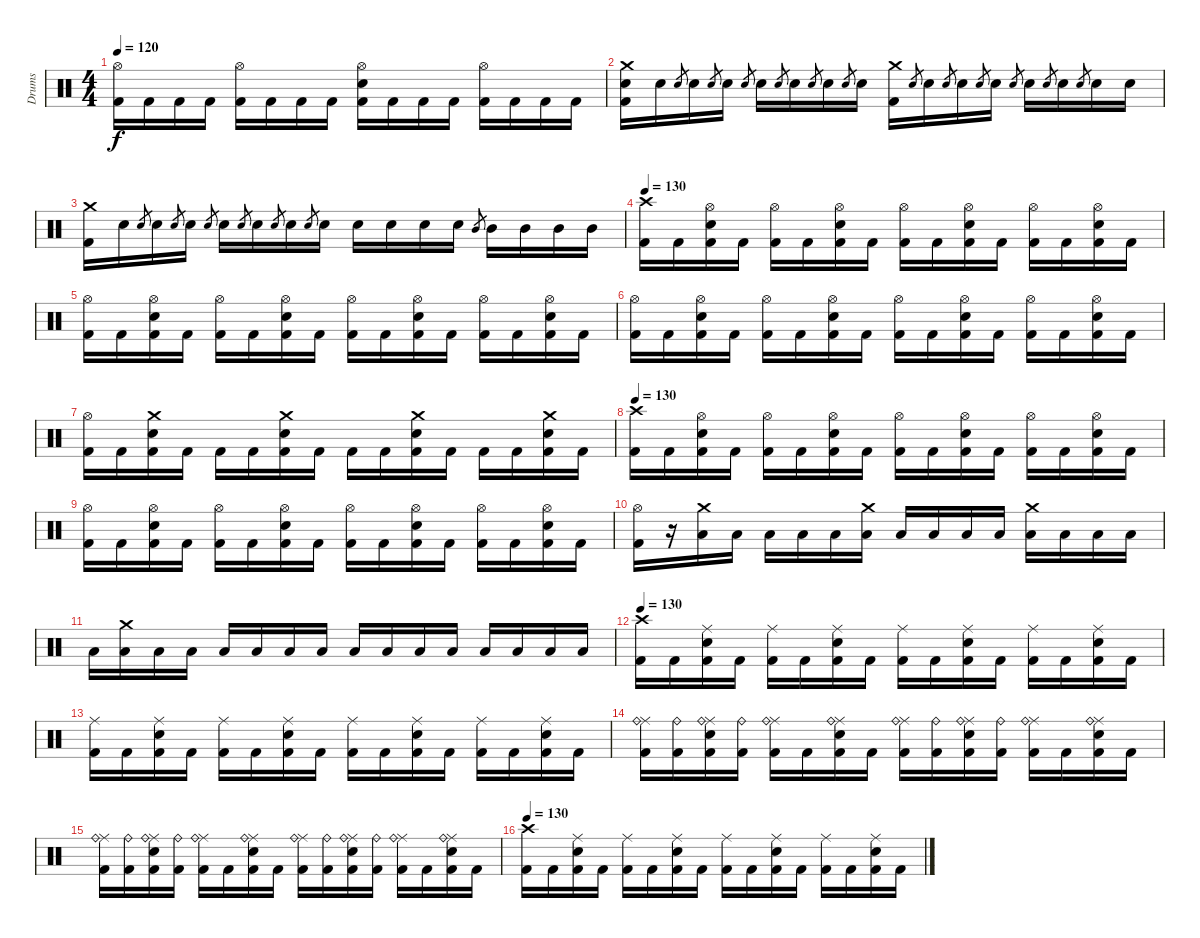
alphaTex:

\track ("Drums" "Drums") {instrument percussion}
\staff {score}
\articulation defaults
\ts (4 4)
\tempo 120
\clef neutral
\ks c
("Hi-Hat (open)" "Kick (hit) 2").16{dy f} "Kick (hit) 2".16 "Kick (hit) 2".16 "Kick (hit) 2".16 ("Hi-Hat (open)" "Kick (hit) 2").16 "Kick (hit) 2".16 "Kick (hit) 2".16 "Kick (hit) 2".16 ("Hi-Hat (open)" "Electric Snare (hit)" "Kick (hit) 2").16 "Kick (hit) 2".16 "Kick (hit) 2".16 "Kick (hit) 2".16 ("Hi-Hat (open)" "Kick (hit) 2").16 "Kick (hit) 2".16 "Kick (hit) 2".16 "Kick (hit) 2".16 |
("Crash medium (hit)" "Electric Snare (hit)" "Kick (hit) 2").16 "Electric Snare (hit)".16 "Electric Snare (hit)".8{gr} "Electric Snare (hit)".16 "Electric Snare (hit)".8{gr} "Electric Snare (hit)".16 "Electric Snare (hit)".8{gr} "Electric Snare (hit)".16 "Electric Snare (hit)".8{gr} "Electric Snare (hit)".16 "Electric Snare (hit)".8{gr} "Electric Snare (hit)".16 "Electric Snare (hit)".8{gr} "Electric Snare (hit)".16 ("Crash medium (hit)" "Kick (hit) 2").16 "Electric Snare (hit)".8{gr} "Electric Snare (hit)".16 "Electric Snare (hit)".8{gr} "Electric Snare (hit)".16 "Electric Snare (hit)".8{gr} "Electric Snare (hit)".16 "Electric Snare (hit)".8{gr} "Electric Snare (hit)".16 "Electric Snare (hit)".8{gr} "Electric Snare (hit)".16 "Electric Snare (hit)".8{gr} "Electric Snare (hit)".16 "Electric Snare (hit)".16 |
("Crash medium (hit)" "Kick (hit) 2").16 "Electric Snare (hit)".16 "Electric Snare (hit)".8{gr} "Electric Snare (hit)".16 "Electric Snare (hit)".8{gr} "Electric Snare (hit)".16 "Electric Snare (hit)".8{gr} "Electric Snare (hit)".16 "Electric Snare (hit)".8{gr} "Electric Snare (hit)".16 "Electric Snare (hit)".8{gr} "Electric Snare (hit)".16 "Electric Snare (hit)".8{gr} "Electric Snare (hit)".16 "Electric Snare (hit)".16 "Electric Snare (hit)".16 "Electric Snare (hit)".16 "Electric Snare (hit)".16 "Mid Tom (hit)".8{gr} "Mid Tom (hit)".16 "Mid Tom (hit)".16 "Mid Tom (hit)".16 "Mid Tom (hit)".16 |
\tempo 130
("Crash high (hit)" "Kick (hit) 2").16 "Kick (hit) 2".16 ("Hi-Hat (open)" "Electric Snare (hit)" "Kick (hit) 2").16 "Kick (hit) 2".16 ("Hi-Hat (open)" "Kick (hit) 2").16 "Kick (hit) 2".16 ("Hi-Hat (open)" "Electric Snare (hit)" "Kick (hit) 2").16 "Kick (hit) 2".16 ("Hi-Hat (open)" "Kick (hit) 2").16 "Kick (hit) 2".16 ("Hi-Hat (open)" "Electric Snare (hit)" "Kick (hit) 2").16 "Kick (hit) 2".16 ("Hi-Hat (open)" "Kick (hit) 2").16 "Kick (hit) 2".16 ("Hi-Hat (open)" "Electric Snare (hit)" "Kick (hit) 2").16 "Kick (hit) 2".16 |
("Hi-Hat (open)" "Kick (hit) 2").16 "Kick (hit) 2".16 ("Hi-Hat (open)" "Electric Snare (hit)" "Kick (hit) 2").16 "Kick (hit) 2".16 ("Hi-Hat (open)" "Kick (hit) 2").16 "Kick (hit) 2".16 ("Hi-Hat (open)" "Electric Snare (hit)" "Kick (hit) 2").16 "Kick (hit) 2".16 ("Hi-Hat (open)" "Kick (hit) 2").16 "Kick (hit) 2".16 ("Hi-Hat (open)" "Electric Snare (hit)" "Kick (hit) 2").16 "Kick (hit) 2".16 ("Hi-Hat (open)" "Kick (hit) 2").16 "Kick (hit) 2".16 ("Hi-Hat (open)" "Electric Snare (hit)" "Kick (hit) 2").16 "Kick (hit) 2".16 |
("Hi-Hat (open)" "Kick (hit) 2").16 "Kick (hit) 2".16 ("Hi-Hat (open)" "Electric Snare (hit)" "Kick (hit) 2").16 "Kick (hit) 2".16 ("Hi-Hat (open)" "Kick (hit) 2").16 "Kick (hit) 2".16 ("Hi-Hat (open)" "Electric Snare (hit)" "Kick (hit) 2").16 "Kick (hit) 2".16 ("Hi-Hat (open)" "Kick (hit) 2").16 "Kick (hit) 2".16 ("Hi-Hat (open)" "Electric Snare (hit)" "Kick (hit) 2").16 "Kick (hit) 2".16 ("Hi-Hat (open)" "Kick (hit) 2").16 "Kick (hit) 2".16 ("Hi-Hat (open)" "Electric Snare (hit)" "Kick (hit) 2").16 "Kick (hit) 2".16 |
("Hi-Hat (open)" "Kick (hit) 2").16 "Kick (hit) 2".16 ("Crash medium (hit)" "Electric Snare (hit)" "Kick (hit) 2").16 "Kick (hit) 2".16 "Kick (hit) 2".16 "Kick (hit) 2".16 ("Crash medium (hit)" "Electric Snare (hit)" "Kick (hit) 2").16 "Kick (hit) 2".16 "Kick (hit) 2".16 "Kick (hit) 2".16 ("Crash medium (hit)" "Electric Snare (hit)" "Kick (hit) 2").16 "Kick (hit) 2".16 "Kick (hit) 2".16 "Kick (hit) 2".16 ("Crash medium (hit)" "Electric Snare (hit)" "Kick (hit) 2").16 "Kick (hit) 2".16 |
\tempo 130
("Crash high (hit)" "Kick (hit) 2").16 "Kick (hit) 2".16 ("Hi-Hat (open)" "Electric Snare (hit)" "Kick (hit) 2").16 "Kick (hit) 2".16 ("Hi-Hat (open)" "Kick (hit) 2").16 "Kick (hit) 2".16 ("Hi-Hat (open)" "Electric Snare (hit)" "Kick (hit) 2").16 "Kick (hit) 2".16 ("Hi-Hat (open)" "Kick (hit) 2").16 "Kick (hit) 2".16 ("Hi-Hat (open)" "Electric Snare (hit)" "Kick (hit) 2").16 "Kick (hit) 2".16 ("Hi-Hat (open)" "Kick (hit) 2").16 "Kick (hit) 2".16 ("Hi-Hat (open)" "Electric Snare (hit)" "Kick (hit) 2").16 "Kick (hit) 2".16 |
("Hi-Hat (open)" "Kick (hit) 2").16 "Kick (hit) 2".16 ("Hi-Hat (open)" "Electric Snare (hit)" "Kick (hit) 2").16 "Kick (hit) 2".16 ("Hi-Hat (open)" "Kick (hit) 2").16 "Kick (hit) 2".16 ("Hi-Hat (open)" "Electric Snare (hit)" "Kick (hit) 2").16 "Kick (hit) 2".16 ("Hi-Hat (open)" "Kick (hit) 2").16 "Kick (hit) 2".16 ("Hi-Hat (open)" "Electric Snare (hit)" "Kick (hit) 2").16 "Kick (hit) 2".16 ("Hi-Hat (open)" "Kick (hit) 2").16 "Kick (hit) 2".16 ("Hi-Hat (open)" "Electric Snare (hit)" "Kick (hit) 2").16 "Kick (hit) 2".16 |
("Hi-Hat (open)" "Kick (hit) 2").16 r.16 ("Crash medium (hit)" "Low Tom (hit)").16 "Low Tom (hit)".16 "Low Tom (hit)".16 "Low Tom (hit)".16 "Low Tom (hit)".16 ("Crash medium (hit)" "Low Tom (hit)").16 "Low Tom (hit)".16 "Low Tom (hit)".16 "Low Tom (hit)".16 "Low Tom (hit)".16 ("Crash medium (hit)" "Low Tom (hit)").16 "Low Tom (hit)".16 "Low Tom (hit)".16 "Low Tom (hit)".16 |
"Low Tom (hit)".16 ("Crash medium (hit)" "Low Tom (hit)").16 "Low Tom (hit)".16 "Low Tom (hit)".16 "Low Tom (hit)".16 "Low Tom (hit)".16 "Low Tom (hit)".16 "Low Tom (hit)".16 "Low Tom (hit)".16 "Low Tom (hit)".16 "Low Tom (hit)".16 "Low Tom (hit)".16 "Low Tom (hit)".16 "Low Tom (hit)".16 "Low Tom (hit)".16 "Low Tom (hit)".16 |
\tempo 130
("Crash high (hit)" "Kick (hit) 2").16 "Kick (hit) 2".16 ("Ride (middle)" "Electric Snare (hit)" "Kick (hit) 2").16 "Kick (hit) 2".16 ("Ride (middle)" "Kick (hit) 2").16 "Kick (hit) 2".16 ("Ride (middle)" "Electric Snare (hit)" "Kick (hit) 2").16 "Kick (hit) 2".16 ("Ride (middle)" "Kick (hit) 2").16 "Kick (hit) 2".16 ("Ride (middle)" "Electric Snare (hit)" "Kick (hit) 2").16 "Kick (hit) 2".16 ("Ride (middle)" "Kick (hit) 2").16 "Kick (hit) 2".16 ("Ride (middle)" "Electric Snare (hit)" "Kick (hit) 2").16 "Kick (hit) 2".16 |
("Ride (middle)" "Kick (hit) 2").16 "Kick (hit) 2".16 ("Ride (middle)" "Electric Snare (hit)" "Kick (hit) 2").16 "Kick (hit) 2".16 ("Ride (middle)" "Kick (hit) 2").16 "Kick (hit) 2".16 ("Ride (middle)" "Electric Snare (hit)" "Kick (hit) 2").16 "Kick (hit) 2".16 ("Ride (middle)" "Kick (hit) 2").16 "Kick (hit) 2".16 ("Ride (middle)" "Electric Snare (hit)" "Kick (hit) 2").16 "Kick (hit) 2".16 ("Ride (middle)" "Kick (hit) 2").16 "Kick (hit) 2".16 ("Ride (middle)" "Electric Snare (hit)" "Kick (hit) 2").16 "Kick (hit) 2".16 |
("Ride (middle)" "Ride (bell)" "Kick (hit) 2").16 ("Ride (bell)" "Kick (hit) 2").16 ("Ride (middle)" "Ride (bell)" "Electric Snare (hit)" "Kick (hit) 2").16 ("Ride (bell)" "Kick (hit) 2").16 ("Ride (middle)" "Ride (bell)" "Kick (hit) 2").16 "Kick (hit) 2".16 ("Ride (middle)" "Ride (bell)" "Electric Snare (hit)" "Kick (hit) 2").16 "Kick (hit) 2".16 ("Ride (middle)" "Ride (bell)" "Kick (hit) 2").16 ("Ride (bell)" "Kick (hit) 2").16 ("Ride (middle)" "Ride (bell)" "Electric Snare (hit)" "Kick (hit) 2").16 ("Ride (bell)" "Kick (hit) 2").16 ("Ride (middle)" "Ride (bell)" "Kick (hit) 2").16 "Kick (hit) 2".16 ("Ride (middle)" "Ride (bell)" "Electric Snare (hit)" "Kick (hit) 2").16 "Kick (hit) 2".16 |
("Ride (middle)" "Ride (bell)" "Kick (hit) 2").16 ("Ride (bell)" "Kick (hit) 2").16 ("Ride (middle)" "Ride (bell)" "Electric Snare (hit)" "Kick (hit) 2").16 ("Ride (bell)" "Kick (hit) 2").16 ("Ride (middle)" "Ride (bell)" "Kick (hit) 2").16 "Kick (hit) 2".16 ("Ride (middle)" "Ride (bell)" "Electric Snare (hit)" "Kick (hit) 2").16 "Kick (hit) 2".16 ("Ride (middle)" "Ride (bell)" "Kick (hit) 2").16 ("Ride (bell)" "Kick (hit) 2").16 ("Ride (middle)" "Ride (bell)" "Electric Snare (hit)" "Kick (hit) 2").16 ("Ride (bell)" "Kick (hit) 2").16 ("Ride (middle)" "Ride (bell)" "Kick (hit) 2").16 "Kick (hit) 2".16 ("Ride (middle)" "Ride (bell)" "Electric Snare (hit)" "Kick (hit) 2").16 "Kick (hit) 2".16 |
\tempo 130
("Crash high (hit)" "Kick (hit) 2").16 "Kick (hit) 2".16 ("Ride (middle)" "Electric Snare (hit)" "Kick (hit) 2").16 "Kick (hit) 2".16 ("Ride (middle)" "Kick (hit) 2").16 "Kick (hit) 2".16 ("Ride (middle)" "Electric Snare (hit)" "Kick (hit) 2").16 "Kick (hit) 2".16 ("Ride (middle)" "Kick (hit) 2").16 "Kick (hit) 2".16 ("Ride (middle)" "Electric Snare (hit)" "Kick (hit) 2").16 "Kick (hit) 2".16 ("Ride (middle)" "Kick (hit) 2").16 "Kick (hit) 2".16 ("Ride (middle)" "Electric Snare (hit)" "Kick (hit) 2").16 "Kick (hit) 2".16
